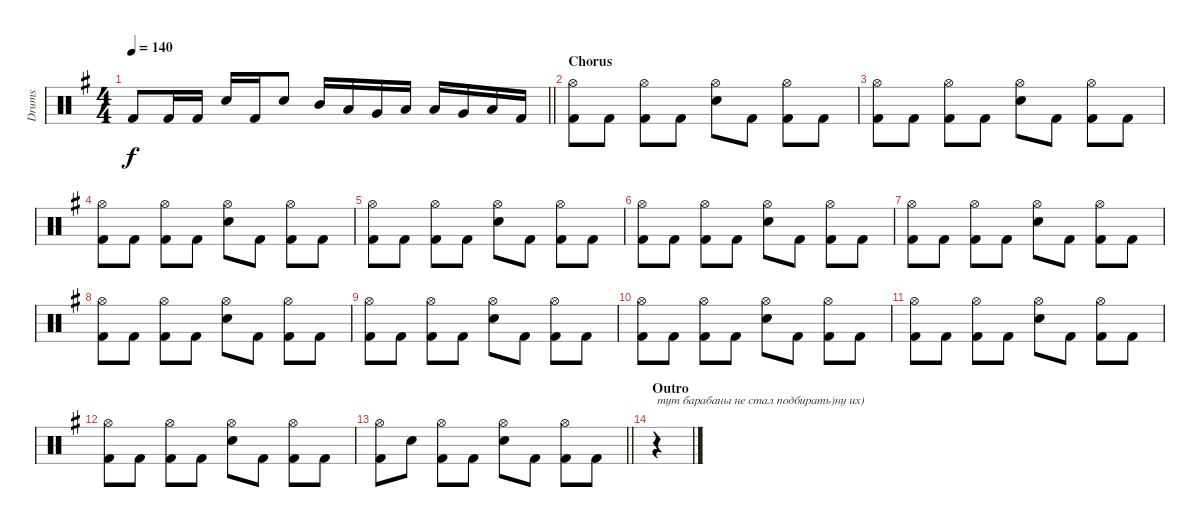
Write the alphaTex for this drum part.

\track ("Drums" "Drums") {instrument percussion}
\staff {score}
\articulation defaults
\ts (4 4)
\tempo 140
\clef neutral
\barLineRight lightlight
\ks g "Kick (hit) 2".8{dy f} "Kick (hit) 2".16 "Kick (hit) 2".16 "Electric Snare (hit)".16 "Kick (hit) 2".16 "Electric Snare (hit)".8 "Mid Tom (hit)".16 "Low Tom (hit)".16 "Very Low Tom (hit)".16 "Low Floor Tom (hit)".16 "Low Tom (hit)".16 "Very Low Tom (hit)".16 "Low Floor Tom (hit)".16 "Kick (hit) 2".16
|
\section ("" "Chorus")
("Hi-Hat (open)" "Kick (hit) 2").8 "Kick (hit) 2".8 ("Hi-Hat (open)" "Kick (hit) 2").8 "Kick (hit) 2".8 ("Hi-Hat (open)" "Electric Snare (hit)").8 "Kick (hit) 2".8 ("Hi-Hat (open)" "Kick (hit) 2").8 "Kick (hit) 2".8 |
("Hi-Hat (open)" "Kick (hit) 2").8 "Kick (hit) 2".8 ("Hi-Hat (open)" "Kick (hit) 2").8 "Kick (hit) 2".8 ("Hi-Hat (open)" "Electric Snare (hit)").8 "Kick (hit) 2".8 ("Hi-Hat (open)" "Kick (hit) 2").8 "Kick (hit) 2".8 |
("Hi-Hat (open)" "Kick (hit) 2").8 "Kick (hit) 2".8 ("Hi-Hat (open)" "Kick (hit) 2").8 "Kick (hit) 2".8 ("Hi-Hat (open)" "Electric Snare (hit)").8 "Kick (hit) 2".8 ("Hi-Hat (open)" "Kick (hit) 2").8 "Kick (hit) 2".8 |
("Hi-Hat (open)" "Kick (hit) 2").8 "Kick (hit) 2".8 ("Hi-Hat (open)" "Kick (hit) 2").8 "Kick (hit) 2".8 ("Hi-Hat (open)" "Electric Snare (hit)").8 "Kick (hit) 2".8 ("Hi-Hat (open)" "Kick (hit) 2").8 "Kick (hit) 2".8 |
("Hi-Hat (open)" "Kick (hit) 2").8 "Kick (hit) 2".8 ("Hi-Hat (open)" "Kick (hit) 2").8 "Kick (hit) 2".8 ("Hi-Hat (open)" "Electric Snare (hit)").8 "Kick (hit) 2".8 ("Hi-Hat (open)" "Kick (hit) 2").8 "Kick (hit) 2".8 |
("Hi-Hat (open)" "Kick (hit) 2").8 "Kick (hit) 2".8 ("Hi-Hat (open)" "Kick (hit) 2").8 "Kick (hit) 2".8 ("Hi-Hat (open)" "Electric Snare (hit)").8 "Kick (hit) 2".8 ("Hi-Hat (open)" "Kick (hit) 2").8 "Kick (hit) 2".8 |
("Hi-Hat (open)" "Kick (hit) 2").8 "Kick (hit) 2".8 ("Hi-Hat (open)" "Kick (hit) 2").8 "Kick (hit) 2".8 ("Hi-Hat (open)" "Electric Snare (hit)").8 "Kick (hit) 2".8 ("Hi-Hat (open)" "Kick (hit) 2").8 "Kick (hit) 2".8 |
("Hi-Hat (open)" "Kick (hit) 2").8 "Kick (hit) 2".8 ("Hi-Hat (open)" "Kick (hit) 2").8 "Kick (hit) 2".8 ("Hi-Hat (open)" "Electric Snare (hit)").8 "Kick (hit) 2".8 ("Hi-Hat (open)" "Kick (hit) 2").8 "Kick (hit) 2".8 |
("Hi-Hat (open)" "Kick (hit) 2").8 "Kick (hit) 2".8 ("Hi-Hat (open)" "Kick (hit) 2").8 "Kick (hit) 2".8 ("Hi-Hat (open)" "Electric Snare (hit)").8 "Kick (hit) 2".8 ("Hi-Hat (open)" "Kick (hit) 2").8 "Kick (hit) 2".8 |
("Hi-Hat (open)" "Kick (hit) 2").8 "Kick (hit) 2".8 ("Hi-Hat (open)" "Kick (hit) 2").8 "Kick (hit) 2".8 ("Hi-Hat (open)" "Electric Snare (hit)").8 "Kick (hit) 2".8 ("Hi-Hat (open)" "Kick (hit) 2").8 "Kick (hit) 2".8 |
("Hi-Hat (open)" "Kick (hit) 2").8 "Kick (hit) 2".8 ("Hi-Hat (open)" "Kick (hit) 2").8 "Kick (hit) 2".8 ("Hi-Hat (open)" "Electric Snare (hit)").8 "Kick (hit) 2".8 ("Hi-Hat (open)" "Kick (hit) 2").8 "Kick (hit) 2".8 |
\barLineRight lightlight
("Hi-Hat (open)" "Kick (hit) 2").8 "Electric Snare (hit)".8 ("Hi-Hat (open)" "Kick (hit) 2").8 "Kick (hit) 2".8 ("Hi-Hat (open)" "Electric Snare (hit)").8 "Kick (hit) 2".8 ("Hi-Hat (open)" "Kick (hit) 2").8 "Kick (hit) 2".8 |
\section ("" "Outro")
r.4{txt "тут барабаны не стал подбирать)ну их)"}
